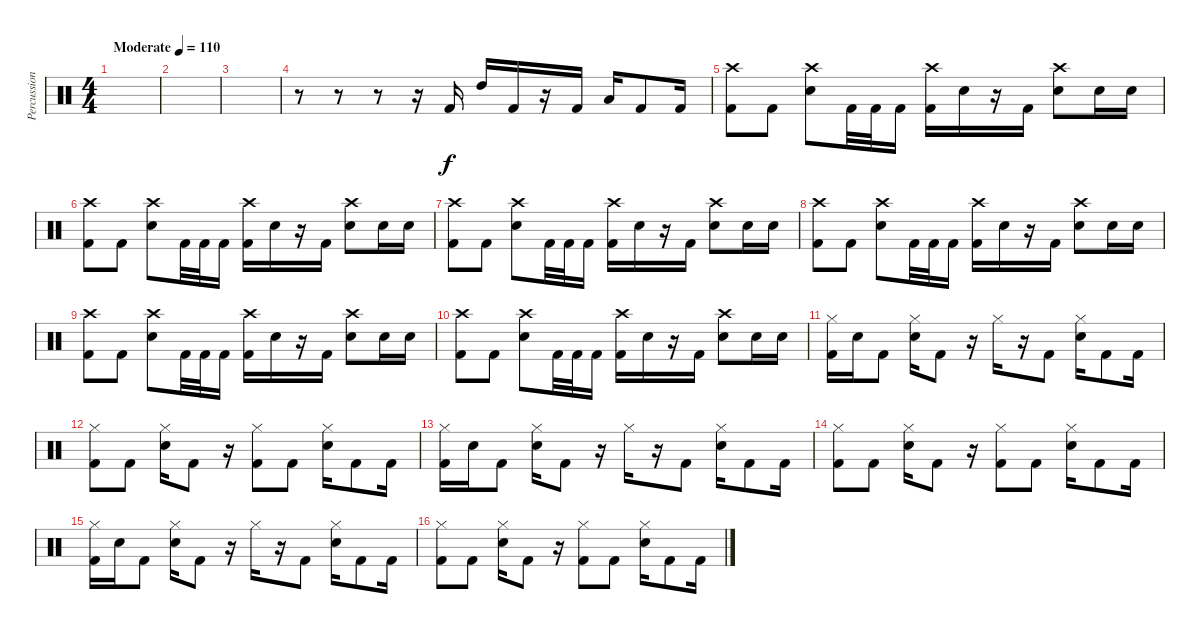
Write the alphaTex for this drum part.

\track ("Percussion" "Percussion") {instrument percussion}
\staff {score}
\articulation defaults
\ts (4 4)
\tempo (110 "Moderate")
\clef neutral
\ks c
|
|
|
r.8 r.8 r.8 r.16 "Kick (hit) 2".16 "High Tom (hit)".16 "Kick (hit) 2".16 r.16 "Kick (hit) 2".16 "Low Tom (hit)".16 "Kick (hit) 2".8 "Kick (hit) 2".16 |
("Crash high (hit)" "Kick (hit) 2").8 "Kick (hit) 2".8 ("Crash high (hit)" "Snare (hit) 2").8 "Kick (hit) 2".32 "Kick (hit) 2".32 "Kick (hit) 2".16 ("Crash high (hit)" "Kick (hit) 2").16 "Snare (hit) 2".16 r.16 "Kick (hit) 2".16 ("Crash high (hit)" "Snare (hit) 2").8 "Snare (hit) 2".16 "Snare (hit) 2".16 |
("Crash high (hit)" "Kick (hit) 2").8 "Kick (hit) 2".8 ("Crash high (hit)" "Snare (hit) 2").8 "Kick (hit) 2".32 "Kick (hit) 2".32 "Kick (hit) 2".16 ("Crash high (hit)" "Kick (hit) 2").16 "Snare (hit) 2".16 r.16 "Kick (hit) 2".16 ("Crash high (hit)" "Snare (hit) 2").8 "Snare (hit) 2".16 "Snare (hit) 2".16 |
("Crash high (hit)" "Kick (hit) 2").8 "Kick (hit) 2".8 ("Crash high (hit)" "Snare (hit) 2").8 "Kick (hit) 2".32 "Kick (hit) 2".32 "Kick (hit) 2".16 ("Crash high (hit)" "Kick (hit) 2").16 "Snare (hit) 2".16 r.16 "Kick (hit) 2".16 ("Crash high (hit)" "Snare (hit) 2").8 "Snare (hit) 2".16 "Snare (hit) 2".16 |
("Crash high (hit)" "Kick (hit) 2").8 "Kick (hit) 2".8 ("Crash high (hit)" "Snare (hit) 2").8 "Kick (hit) 2".32 "Kick (hit) 2".32 "Kick (hit) 2".16 ("Crash high (hit)" "Kick (hit) 2").16 "Snare (hit) 2".16 r.16 "Kick (hit) 2".16 ("Crash high (hit)" "Snare (hit) 2").8 "Snare (hit) 2".16 "Snare (hit) 2".16 |
("Crash high (hit)" "Kick (hit) 2").8 "Kick (hit) 2".8 ("Crash high (hit)" "Snare (hit) 2").8 "Kick (hit) 2".32 "Kick (hit) 2".32 "Kick (hit) 2".16 ("Crash high (hit)" "Kick (hit) 2").16 "Snare (hit) 2".16 r.16 "Kick (hit) 2".16 ("Crash high (hit)" "Snare (hit) 2").8 "Snare (hit) 2".16 "Snare (hit) 2".16 |
("Crash high (hit)" "Kick (hit) 2").8 "Kick (hit) 2".8 ("Crash high (hit)" "Snare (hit) 2").8 "Kick (hit) 2".32 "Kick (hit) 2".32 "Kick (hit) 2".16 ("Crash high (hit)" "Kick (hit) 2").16 "Snare (hit) 2".16 r.16 "Kick (hit) 2".16 ("Crash high (hit)" "Snare (hit) 2").8 "Snare (hit) 2".16 "Snare (hit) 2".16 |
("Hi-Hat (closed)" "Kick (hit) 2").16 "Snare (hit) 2".16 "Kick (hit) 2".8 ("Hi-Hat (closed)" "Snare (hit) 2").16 "Kick (hit) 2".8 r.16 "Hi-Hat (closed)".16 r.16 "Kick (hit) 2".8 ("Hi-Hat (closed)" "Snare (hit) 2").16 "Kick (hit) 2".8 "Kick (hit) 2".16 |
("Hi-Hat (closed)" "Kick (hit) 2").8 "Kick (hit) 2".8 ("Hi-Hat (closed)" "Snare (hit) 2").16 "Kick (hit) 2".8 r.16 ("Hi-Hat (closed)" "Kick (hit) 2").8 "Kick (hit) 2".8 ("Hi-Hat (closed)" "Snare (hit) 2").16 "Kick (hit) 2".8 "Kick (hit) 2".16 |
("Hi-Hat (closed)" "Kick (hit) 2").16 "Snare (hit) 2".16 "Kick (hit) 2".8 ("Hi-Hat (closed)" "Snare (hit) 2").16 "Kick (hit) 2".8 r.16 "Hi-Hat (closed)".16 r.16 "Kick (hit) 2".8 ("Hi-Hat (closed)" "Snare (hit) 2").16 "Kick (hit) 2".8 "Kick (hit) 2".16 |
("Hi-Hat (closed)" "Kick (hit) 2").8 "Kick (hit) 2".8 ("Hi-Hat (closed)" "Snare (hit) 2").16 "Kick (hit) 2".8 r.16 ("Hi-Hat (closed)" "Kick (hit) 2").8 "Kick (hit) 2".8 ("Hi-Hat (closed)" "Snare (hit) 2").16 "Kick (hit) 2".8 "Kick (hit) 2".16 |
("Hi-Hat (closed)" "Kick (hit) 2").16 "Snare (hit) 2".16 "Kick (hit) 2".8 ("Hi-Hat (closed)" "Snare (hit) 2").16 "Kick (hit) 2".8 r.16 "Hi-Hat (closed)".16 r.16 "Kick (hit) 2".8 ("Hi-Hat (closed)" "Snare (hit) 2").16 "Kick (hit) 2".8 "Kick (hit) 2".16 |
("Hi-Hat (closed)" "Kick (hit) 2").8 "Kick (hit) 2".8 ("Hi-Hat (closed)" "Snare (hit) 2").16 "Kick (hit) 2".8 r.16 ("Hi-Hat (closed)" "Kick (hit) 2").8 "Kick (hit) 2".8 ("Hi-Hat (closed)" "Snare (hit) 2").16 "Kick (hit) 2".8 "Kick (hit) 2".16
